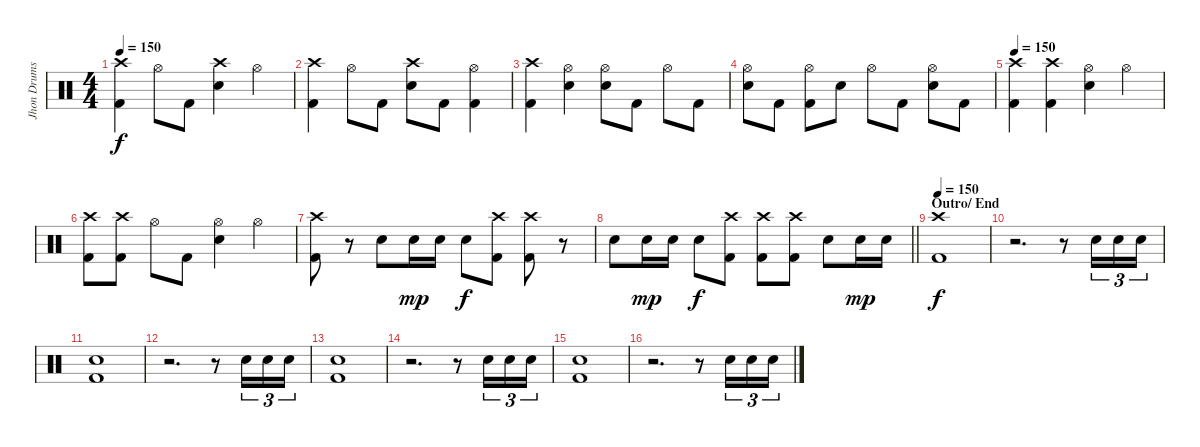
\track ("Jhon Drums" "Jhon Drums") {instrument percussion}
\staff {score}
\articulation defaults
\ts (4 4)
\tempo 150
\clef neutral
\ks c
("Crash high (hit)" "Kick (hit) 2").4{dy f} "Hi-Hat (open)".8 "Kick (hit) 2".8 ("Crash high (hit)" "Electric Snare (hit)").4 "Hi-Hat (open)".4 |
("Crash high (hit)" "Kick (hit) 2").4 "Hi-Hat (open)".8 "Kick (hit) 2".8 ("Crash high (hit)" "Electric Snare (hit)").8 "Kick (hit) 2".8 ("Hi-Hat (open)" "Kick (hit) 2").4 |
("Crash high (hit)" "Kick (hit) 2").4 ("Hi-Hat (open)" "Electric Snare (hit)").4 ("Hi-Hat (open)" "Electric Snare (hit)").8 "Kick (hit) 2".8 "Hi-Hat (open)".8 "Kick (hit) 2".8 |
("Hi-Hat (open)" "Electric Snare (hit)").8 "Kick (hit) 2".8 ("Hi-Hat (open)" "Kick (hit) 2").8 "Electric Snare (hit)".8 "Hi-Hat (open)".8 "Kick (hit) 2".8 ("Hi-Hat (open)" "Electric Snare (hit)").8 "Kick (hit) 2".8 |
\tempo 150
("Crash high (hit)" "Kick (hit) 2").4 ("Crash high (hit)" "Kick (hit) 2").4 ("Hi-Hat (open)" "Electric Snare (hit)").4 "Hi-Hat (open)".4 |
("Crash high (hit)" "Kick (hit) 2").8 ("Crash high (hit)" "Kick (hit) 2").8 "Hi-Hat (open)".8 "Kick (hit) 2".8 ("Hi-Hat (open)" "Electric Snare (hit)").4 "Hi-Hat (open)".4 |
("Crash high (hit)" "Kick (hit) 2").8 r.8 "Electric Snare (hit)".8 "Electric Snare (hit)".16{dy mp} "Electric Snare (hit)".16 "Electric Snare (hit)".8{dy f} ("Crash high (hit)" "Kick (hit) 2").8 ("Crash high (hit)" "Kick (hit) 2").8 r.8 |
\barLineRight lightlight "Electric Snare (hit)".8 "Electric Snare (hit)".16{dy mp} "Electric Snare (hit)".16 "Electric Snare (hit)".8{dy f}
("Crash high (hit)" "Kick (hit) 2").8 ("Crash high (hit)" "Kick (hit) 2").8 ("Crash high (hit)" "Kick (hit) 2").8 "Electric Snare (hit)".8 "Electric Snare (hit)".16{dy mp} "Electric Snare (hit)".16 |
\section ("" "Outro/ End")
\tempo 150
("Crash high (hit)" "Kick (hit) 2").1{dy f} |
r.2{d} r.8 "Electric Snare (hit)".16{tu (3 2)} "Electric Snare (hit)".16{tu (3 2)} "Electric Snare (hit)".16{tu (3 2)} |
("Electric Snare (hit)" "Kick (hit) 2").1 |
r.2{d} r.8 "Electric Snare (hit)".16{tu (3 2)} "Electric Snare (hit)".16{tu (3 2)} "Electric Snare (hit)".16{tu (3 2)} |
("Electric Snare (hit)" "Kick (hit) 2").1 |
r.2{d} r.8 "Electric Snare (hit)".16{tu (3 2)} "Electric Snare (hit)".16{tu (3 2)} "Electric Snare (hit)".16{tu (3 2)} |
("Electric Snare (hit)" "Kick (hit) 2").1 |
r.2{d} r.8 "Electric Snare (hit)".16{tu (3 2)} "Electric Snare (hit)".16{tu (3 2)} "Electric Snare (hit)".16{tu (3 2)}
